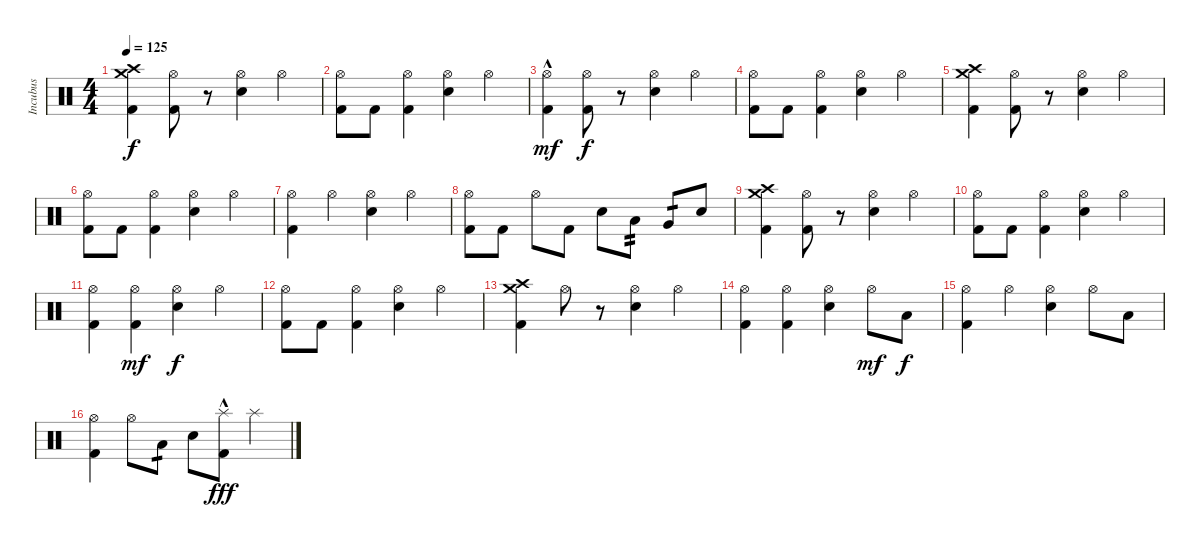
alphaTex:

\track ("Incubus" "Incubus") {instrument percussion}
\staff {score}
\articulation defaults
\ts (4 4)
\tempo 125
\clef neutral
\ks c
("Crash high (hit)" "Crash medium (hit)" "Kick (hit) 2").4{dy f} ("Hi-Hat (open)" "Kick (hit) 2").8 r.8 ("Hi-Hat (open)" "Snare (hit) 2").4 "Hi-Hat (open)".4 |
("Hi-Hat (open)" "Kick (hit) 2").8 "Kick (hit) 2".8 ("Hi-Hat (open)" "Kick (hit) 2").4 ("Hi-Hat (open)" "Snare (hit) 2").4 "Hi-Hat (open)".4 |
("Hi-Hat (open)"{hac} "Kick (hit) 2").4{dy mf} ("Hi-Hat (open)" "Kick (hit) 2").8{dy f} r.8 ("Hi-Hat (open)" "Snare (hit) 2").4 "Hi-Hat (open)".4 |
("Hi-Hat (open)" "Kick (hit) 2").8 "Kick (hit) 2".8 ("Hi-Hat (open)" "Kick (hit) 2").4 ("Hi-Hat (open)" "Snare (hit) 2").4 "Hi-Hat (open)".4 |
("Crash high (hit)" "Crash medium (hit)" "Kick (hit) 2").4 ("Hi-Hat (open)" "Kick (hit) 2").8 r.8 ("Hi-Hat (open)" "Snare (hit) 2").4 "Hi-Hat (open)".4 |
("Hi-Hat (open)" "Kick (hit) 2").8 "Kick (hit) 2".8 ("Hi-Hat (open)" "Kick (hit) 2").4 ("Hi-Hat (open)" "Snare (hit) 2").4 "Hi-Hat (open)".4 |
("Hi-Hat (open)" "Kick (hit) 2").4 "Hi-Hat (open)".4 ("Hi-Hat (open)" "Snare (hit) 2").4 "Hi-Hat (open)".4 |
("Hi-Hat (open)" "Kick (hit) 2").8 "Kick (hit) 2".8 "Hi-Hat (open)".8 "Kick (hit) 2".8 "Snare (hit) 2".8 "Low Floor Tom (hit)".8{tp 2} "Very Low Tom (hit)".8{tp 1} "Snare (hit) 2".8 |
("Crash high (hit)" "Crash medium (hit)" "Kick (hit) 2").4 ("Hi-Hat (open)" "Kick (hit) 2").8 r.8 ("Hi-Hat (open)" "Snare (hit) 2").4 "Hi-Hat (open)".4 |
("Hi-Hat (open)" "Kick (hit) 2").8 "Kick (hit) 2".8 ("Hi-Hat (open)" "Kick (hit) 2").4 ("Hi-Hat (open)" "Snare (hit) 2").4 "Hi-Hat (open)".4 |
("Hi-Hat (open)" "Kick (hit) 2").4 ("Hi-Hat (open)" "Kick (hit) 2").4{dy mf} ("Hi-Hat (open)" "Snare (hit) 2").4{dy f} "Hi-Hat (open)".4 |
("Hi-Hat (open)" "Kick (hit) 2").8 "Kick (hit) 2".8 ("Hi-Hat (open)" "Kick (hit) 2").4 ("Hi-Hat (open)" "Snare (hit) 2").4 "Hi-Hat (open)".4 |
("Crash high (hit)" "Crash medium (hit)" "Kick (hit) 2").4 "Hi-Hat (open)".8 r.8 ("Hi-Hat (open)" "Snare (hit) 2").4 "Hi-Hat (open)".4 |
("Hi-Hat (open)" "Kick (hit) 2").4 ("Hi-Hat (open)" "Kick (hit) 2").4 ("Hi-Hat (open)" "Snare (hit) 2").4 "Hi-Hat (open)".8{dy mf} "Low Floor Tom (hit)".8{dy f} |
("Hi-Hat (open)" "Kick (hit) 2").4 "Hi-Hat (open)".4 ("Hi-Hat (open)" "Snare (hit) 2").4 "Hi-Hat (open)".8 "Low Floor Tom (hit)".8 |
("Hi-Hat (open)" "Kick (hit) 2").4 "Hi-Hat (open)".8 "Low Floor Tom (hit)".8{tp 1} "Snare (hit) 2".8 ("Splash (hit)"{hac} "Kick (hit) 2").8{dy fff} "Splash (hit)".4
